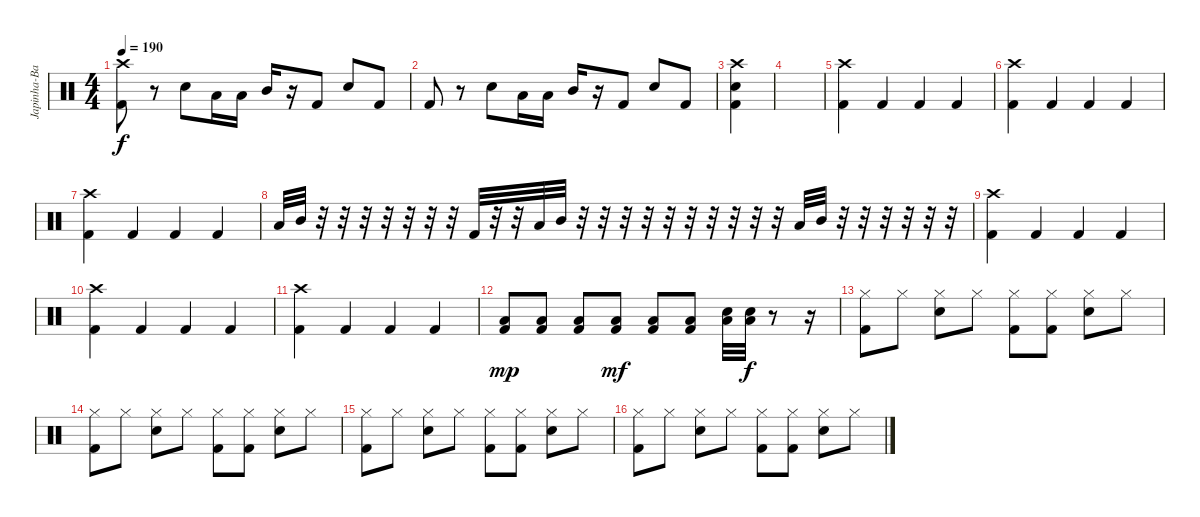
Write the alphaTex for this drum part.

\track ("Japinha-Batera" "Japinha-Ba") {instrument percussion}
\staff {score}
\articulation defaults
\ts (4 4)
\tempo 190
\clef neutral
\ks c
("Crash high (hit)" "Kick (hit) 2").8{dy f} r.8 "Electric Snare (hit)".8 "Low Tom (hit)".16 "Low Tom (hit)".16 "Mid Tom (hit)".16 r.16 "Kick (hit) 2".8 "Electric Snare (hit)".8 "Kick (hit) 2".8 |
"Kick (hit) 2".8 r.8 "Electric Snare (hit)".8 "Low Tom (hit)".16 "Low Tom (hit)".16 "Mid Tom (hit)".16 r.16 "Kick (hit) 2".8 "Electric Snare (hit)".8 "Kick (hit) 2".8 |
("Crash high (hit)" "Electric Snare (hit)" "Kick (hit) 2").4 |
|
("Crash high (hit)" "Kick (hit) 2").4 "Kick (hit) 2".4 "Kick (hit) 2".4 "Kick (hit) 2".4 |
("Crash high (hit)" "Kick (hit) 2").4 "Kick (hit) 2".4 "Kick (hit) 2".4 "Kick (hit) 2".4 |
("Crash high (hit)" "Kick (hit) 2").4 "Kick (hit) 2".4 "Kick (hit) 2".4 "Kick (hit) 2".4 |
"Low Tom (hit)".32 "Mid Tom (hit)".32 r.32 r.32 r.32 r.32 r.32 r.32 r.32 "Kick (hit) 2".32 r.32 r.32 "Low Tom (hit)".32 "Mid Tom (hit)".32 r.32 r.32 r.32 r.32 r.32 r.32 r.32 r.32 r.32 r.32 "Low Tom (hit)".32 "Mid Tom (hit)".32 r.32 r.32 r.32 r.32 r.32 r.32 |
("Crash high (hit)" "Kick (hit) 2").4 "Kick (hit) 2".4 "Kick (hit) 2".4 "Kick (hit) 2".4 |
("Crash high (hit)" "Kick (hit) 2").4 "Kick (hit) 2".4 "Kick (hit) 2".4 "Kick (hit) 2".4 |
("Crash high (hit)" "Kick (hit) 2").4 "Kick (hit) 2".4 "Kick (hit) 2".4 "Kick (hit) 2".4 |
("Low Tom (hit)" "Kick (hit) 2").8{dy mp} ("Low Tom (hit)" "Kick (hit) 2").8 ("Low Tom (hit)" "Kick (hit) 2").8 ("Low Tom (hit)" "Kick (hit) 2").8{dy mf} ("Low Tom (hit)" "Kick (hit) 2").8 ("Low Tom (hit)" "Kick (hit) 2").8 ("Low Tom (hit)" "Electric Snare (hit)").32 ("Low Tom (hit)" "Electric Snare (hit)").32{dy f} r.8 r.16 |
("Hi-Hat (closed)" "Kick (hit) 2").8 "Hi-Hat (closed)".8 ("Hi-Hat (closed)" "Electric Snare (hit)").8 "Hi-Hat (closed)".8 ("Hi-Hat (closed)" "Kick (hit) 2").8 ("Hi-Hat (closed)" "Kick (hit) 2").8 ("Hi-Hat (closed)" "Electric Snare (hit)").8 "Hi-Hat (closed)".8 |
("Hi-Hat (closed)" "Kick (hit) 2").8 "Hi-Hat (closed)".8 ("Hi-Hat (closed)" "Electric Snare (hit)").8 "Hi-Hat (closed)".8 ("Hi-Hat (closed)" "Kick (hit) 2").8 ("Hi-Hat (closed)" "Kick (hit) 2").8 ("Hi-Hat (closed)" "Electric Snare (hit)").8 "Hi-Hat (closed)".8 |
("Hi-Hat (closed)" "Kick (hit) 2").8 "Hi-Hat (closed)".8 ("Hi-Hat (closed)" "Electric Snare (hit)").8 "Hi-Hat (closed)".8 ("Hi-Hat (closed)" "Kick (hit) 2").8 ("Hi-Hat (closed)" "Kick (hit) 2").8 ("Hi-Hat (closed)" "Electric Snare (hit)").8 "Hi-Hat (closed)".8 |
("Hi-Hat (closed)" "Kick (hit) 2").8 "Hi-Hat (closed)".8 ("Hi-Hat (closed)" "Electric Snare (hit)").8 "Hi-Hat (closed)".8 ("Hi-Hat (closed)" "Kick (hit) 2").8 ("Hi-Hat (closed)" "Kick (hit) 2").8 ("Hi-Hat (closed)" "Electric Snare (hit)").8 "Hi-Hat (closed)".8
